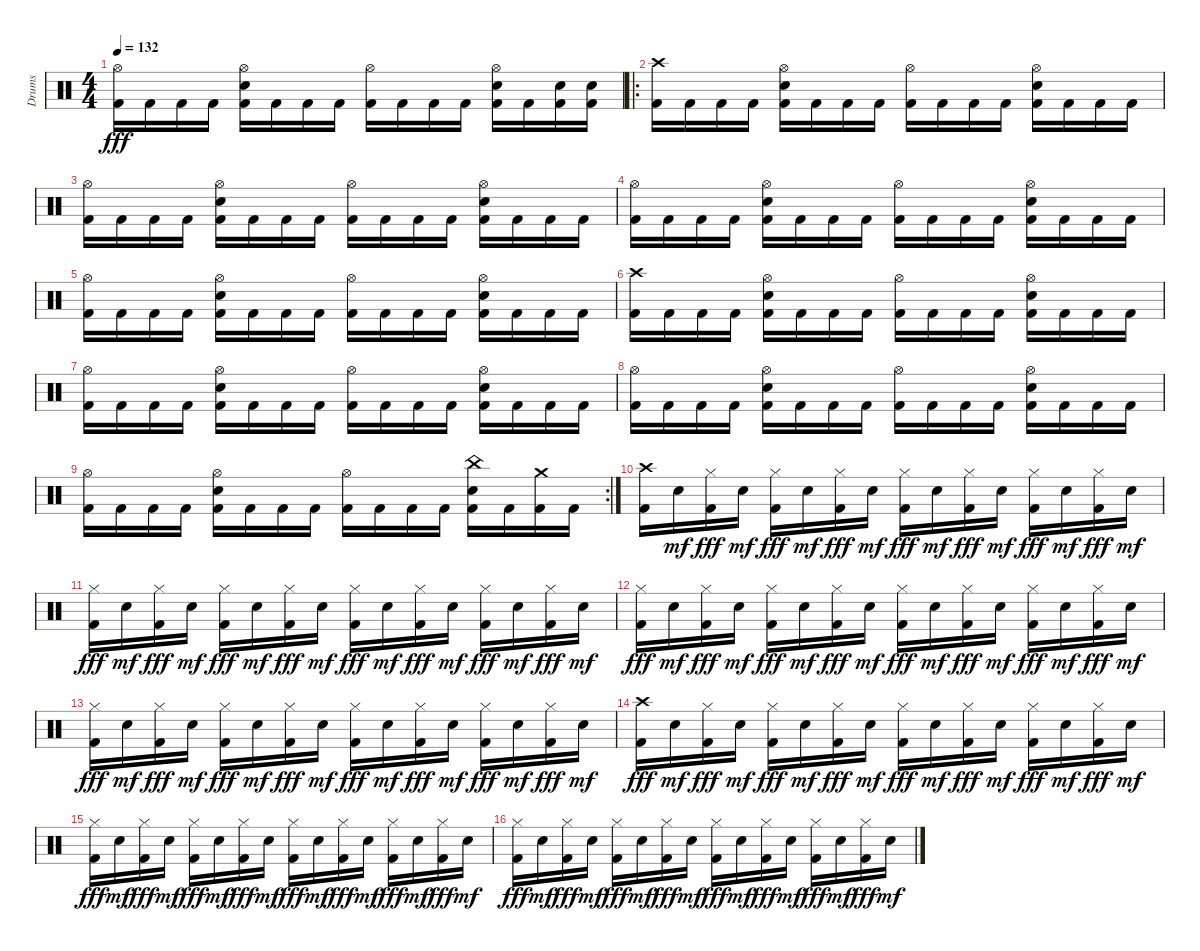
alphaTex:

\track ("Drums" "Drums") {instrument percussion}
\staff {score}
\articulation defaults
\ts (4 4)
\tempo 132
\clef neutral
\ks c
("Hi-Hat (open)" "Kick (hit) 2").16{dy fff} "Kick (hit) 2".16 "Kick (hit) 2".16 "Kick (hit) 2".16 ("Hi-Hat (open)" "Snare (hit) 2" "Kick (hit) 2").16 "Kick (hit) 2".16 "Kick (hit) 2".16 "Kick (hit) 2".16 ("Hi-Hat (open)" "Kick (hit) 2").16 "Kick (hit) 2".16 "Kick (hit) 2".16 "Kick (hit) 2".16 ("Hi-Hat (open)" "Snare (hit) 2" "Kick (hit) 2").16 "Kick (hit) 2".16 ("Snare (hit) 2" "Kick (hit) 2").16 ("Snare (hit) 2" "Kick (hit) 2").16 |
\ro
("Crash high (hit)" "Kick (hit) 2").16 "Kick (hit) 2".16 "Kick (hit) 2".16 "Kick (hit) 2".16 ("Hi-Hat (open)" "Snare (hit) 2" "Kick (hit) 2").16 "Kick (hit) 2".16 "Kick (hit) 2".16 "Kick (hit) 2".16 ("Hi-Hat (open)" "Kick (hit) 2").16 "Kick (hit) 2".16 "Kick (hit) 2".16 "Kick (hit) 2".16 ("Hi-Hat (open)" "Snare (hit) 2" "Kick (hit) 2").16 "Kick (hit) 2".16 "Kick (hit) 2".16 "Kick (hit) 2".16 |
("Hi-Hat (open)" "Kick (hit) 2").16 "Kick (hit) 2".16 "Kick (hit) 2".16 "Kick (hit) 2".16 ("Hi-Hat (open)" "Snare (hit) 2" "Kick (hit) 2").16 "Kick (hit) 2".16 "Kick (hit) 2".16 "Kick (hit) 2".16 ("Hi-Hat (open)" "Kick (hit) 2").16 "Kick (hit) 2".16 "Kick (hit) 2".16 "Kick (hit) 2".16 ("Hi-Hat (open)" "Snare (hit) 2" "Kick (hit) 2").16 "Kick (hit) 2".16 "Kick (hit) 2".16 "Kick (hit) 2".16 |
("Hi-Hat (open)" "Kick (hit) 2").16 "Kick (hit) 2".16 "Kick (hit) 2".16 "Kick (hit) 2".16 ("Hi-Hat (open)" "Snare (hit) 2" "Kick (hit) 2").16 "Kick (hit) 2".16 "Kick (hit) 2".16 "Kick (hit) 2".16 ("Hi-Hat (open)" "Kick (hit) 2").16 "Kick (hit) 2".16 "Kick (hit) 2".16 "Kick (hit) 2".16 ("Hi-Hat (open)" "Snare (hit) 2" "Kick (hit) 2").16 "Kick (hit) 2".16 "Kick (hit) 2".16 "Kick (hit) 2".16 |
("Hi-Hat (open)" "Kick (hit) 2").16 "Kick (hit) 2".16 "Kick (hit) 2".16 "Kick (hit) 2".16 ("Hi-Hat (open)" "Snare (hit) 2" "Kick (hit) 2").16 "Kick (hit) 2".16 "Kick (hit) 2".16 "Kick (hit) 2".16 ("Hi-Hat (open)" "Kick (hit) 2").16 "Kick (hit) 2".16 "Kick (hit) 2".16 "Kick (hit) 2".16 ("Hi-Hat (open)" "Snare (hit) 2" "Kick (hit) 2").16 "Kick (hit) 2".16 "Kick (hit) 2".16 "Kick (hit) 2".16 |
("Crash high (hit)" "Kick (hit) 2").16 "Kick (hit) 2".16 "Kick (hit) 2".16 "Kick (hit) 2".16 ("Hi-Hat (open)" "Snare (hit) 2" "Kick (hit) 2").16 "Kick (hit) 2".16 "Kick (hit) 2".16 "Kick (hit) 2".16 ("Hi-Hat (open)" "Kick (hit) 2").16 "Kick (hit) 2".16 "Kick (hit) 2".16 "Kick (hit) 2".16 ("Hi-Hat (open)" "Snare (hit) 2" "Kick (hit) 2").16 "Kick (hit) 2".16 "Kick (hit) 2".16 "Kick (hit) 2".16 |
("Hi-Hat (open)" "Kick (hit) 2").16 "Kick (hit) 2".16 "Kick (hit) 2".16 "Kick (hit) 2".16 ("Hi-Hat (open)" "Snare (hit) 2" "Kick (hit) 2").16 "Kick (hit) 2".16 "Kick (hit) 2".16 "Kick (hit) 2".16 ("Hi-Hat (open)" "Kick (hit) 2").16 "Kick (hit) 2".16 "Kick (hit) 2".16 "Kick (hit) 2".16 ("Hi-Hat (open)" "Snare (hit) 2" "Kick (hit) 2").16 "Kick (hit) 2".16 "Kick (hit) 2".16 "Kick (hit) 2".16 |
("Hi-Hat (open)" "Kick (hit) 2").16 "Kick (hit) 2".16 "Kick (hit) 2".16 "Kick (hit) 2".16 ("Hi-Hat (open)" "Snare (hit) 2" "Kick (hit) 2").16 "Kick (hit) 2".16 "Kick (hit) 2".16 "Kick (hit) 2".16 ("Hi-Hat (open)" "Kick (hit) 2").16 "Kick (hit) 2".16 "Kick (hit) 2".16 "Kick (hit) 2".16 ("Hi-Hat (open)" "Snare (hit) 2" "Kick (hit) 2").16 "Kick (hit) 2".16 "Kick (hit) 2".16 "Kick (hit) 2".16 |
\rc 2
("Hi-Hat (open)" "Kick (hit) 2").16 "Kick (hit) 2".16 "Kick (hit) 2".16 "Kick (hit) 2".16 ("Hi-Hat (open)" "Snare (hit) 2" "Kick (hit) 2").16 "Kick (hit) 2".16 "Kick (hit) 2".16 "Kick (hit) 2".16 ("Hi-Hat (open)" "Kick (hit) 2").16 "Kick (hit) 2".16 "Kick (hit) 2".16 "Kick (hit) 2".16 ("China (hit)" "Snare (hit) 2" "Kick (hit) 2").16 "Kick (hit) 2".16 ("Crash medium (hit)" "Kick (hit) 2").16 "Kick (hit) 2".16 |
("Crash high (hit)" "Kick (hit) 2").16 "Snare (hit) 2".16{dy mf} ("Hi-Hat (closed)" "Kick (hit) 2").16{dy fff} "Snare (hit) 2".16{dy mf} ("Hi-Hat (closed)" "Kick (hit) 2").16{dy fff} "Snare (hit) 2".16{dy mf} ("Hi-Hat (closed)" "Kick (hit) 2").16{dy fff} "Snare (hit) 2".16{dy mf} ("Hi-Hat (closed)" "Kick (hit) 2").16{dy fff} "Snare (hit) 2".16{dy mf} ("Hi-Hat (closed)" "Kick (hit) 2").16{dy fff} "Snare (hit) 2".16{dy mf} ("Hi-Hat (closed)" "Kick (hit) 2").16{dy fff} "Snare (hit) 2".16{dy mf} ("Hi-Hat (closed)" "Kick (hit) 2").16{dy fff} "Snare (hit) 2".16{dy mf} |
("Hi-Hat (closed)" "Kick (hit) 2").16{dy fff} "Snare (hit) 2".16{dy mf} ("Hi-Hat (closed)" "Kick (hit) 2").16{dy fff} "Snare (hit) 2".16{dy mf} ("Hi-Hat (closed)" "Kick (hit) 2").16{dy fff} "Snare (hit) 2".16{dy mf} ("Hi-Hat (closed)" "Kick (hit) 2").16{dy fff} "Snare (hit) 2".16{dy mf} ("Hi-Hat (closed)" "Kick (hit) 2").16{dy fff} "Snare (hit) 2".16{dy mf} ("Hi-Hat (closed)" "Kick (hit) 2").16{dy fff} "Snare (hit) 2".16{dy mf} ("Hi-Hat (closed)" "Kick (hit) 2").16{dy fff} "Snare (hit) 2".16{dy mf} ("Hi-Hat (closed)" "Kick (hit) 2").16{dy fff} "Snare (hit) 2".16{dy mf} |
("Hi-Hat (closed)" "Kick (hit) 2").16{dy fff} "Snare (hit) 2".16{dy mf} ("Hi-Hat (closed)" "Kick (hit) 2").16{dy fff} "Snare (hit) 2".16{dy mf} ("Hi-Hat (closed)" "Kick (hit) 2").16{dy fff} "Snare (hit) 2".16{dy mf} ("Hi-Hat (closed)" "Kick (hit) 2").16{dy fff} "Snare (hit) 2".16{dy mf} ("Hi-Hat (closed)" "Kick (hit) 2").16{dy fff} "Snare (hit) 2".16{dy mf} ("Hi-Hat (closed)" "Kick (hit) 2").16{dy fff} "Snare (hit) 2".16{dy mf} ("Hi-Hat (closed)" "Kick (hit) 2").16{dy fff} "Snare (hit) 2".16{dy mf} ("Hi-Hat (closed)" "Kick (hit) 2").16{dy fff} "Snare (hit) 2".16{dy mf} |
("Hi-Hat (closed)" "Kick (hit) 2").16{dy fff} "Snare (hit) 2".16{dy mf} ("Hi-Hat (closed)" "Kick (hit) 2").16{dy fff} "Snare (hit) 2".16{dy mf} ("Hi-Hat (closed)" "Kick (hit) 2").16{dy fff} "Snare (hit) 2".16{dy mf} ("Hi-Hat (closed)" "Kick (hit) 2").16{dy fff} "Snare (hit) 2".16{dy mf} ("Hi-Hat (closed)" "Kick (hit) 2").16{dy fff} "Snare (hit) 2".16{dy mf} ("Hi-Hat (closed)" "Kick (hit) 2").16{dy fff} "Snare (hit) 2".16{dy mf} ("Hi-Hat (closed)" "Kick (hit) 2").16{dy fff} "Snare (hit) 2".16{dy mf} ("Hi-Hat (closed)" "Kick (hit) 2").16{dy fff} "Snare (hit) 2".16{dy mf} |
("Crash high (hit)" "Kick (hit) 2").16{dy fff} "Snare (hit) 2".16{dy mf} ("Hi-Hat (closed)" "Kick (hit) 2").16{dy fff} "Snare (hit) 2".16{dy mf} ("Hi-Hat (closed)" "Kick (hit) 2").16{dy fff} "Snare (hit) 2".16{dy mf} ("Hi-Hat (closed)" "Kick (hit) 2").16{dy fff} "Snare (hit) 2".16{dy mf} ("Hi-Hat (closed)" "Kick (hit) 2").16{dy fff} "Snare (hit) 2".16{dy mf} ("Hi-Hat (closed)" "Kick (hit) 2").16{dy fff} "Snare (hit) 2".16{dy mf} ("Hi-Hat (closed)" "Kick (hit) 2").16{dy fff} "Snare (hit) 2".16{dy mf} ("Hi-Hat (closed)" "Kick (hit) 2").16{dy fff} "Snare (hit) 2".16{dy mf} |
("Hi-Hat (closed)" "Kick (hit) 2").16{dy fff} "Snare (hit) 2".16{dy mf} ("Hi-Hat (closed)" "Kick (hit) 2").16{dy fff} "Snare (hit) 2".16{dy mf} ("Hi-Hat (closed)" "Kick (hit) 2").16{dy fff} "Snare (hit) 2".16{dy mf} ("Hi-Hat (closed)" "Kick (hit) 2").16{dy fff} "Snare (hit) 2".16{dy mf} ("Hi-Hat (closed)" "Kick (hit) 2").16{dy fff} "Snare (hit) 2".16{dy mf} ("Hi-Hat (closed)" "Kick (hit) 2").16{dy fff} "Snare (hit) 2".16{dy mf} ("Hi-Hat (closed)" "Kick (hit) 2").16{dy fff} "Snare (hit) 2".16{dy mf} ("Hi-Hat (closed)" "Kick (hit) 2").16{dy fff} "Snare (hit) 2".16{dy mf} |
("Hi-Hat (closed)" "Kick (hit) 2").16{dy fff} "Snare (hit) 2".16{dy mf} ("Hi-Hat (closed)" "Kick (hit) 2").16{dy fff} "Snare (hit) 2".16{dy mf} ("Hi-Hat (closed)" "Kick (hit) 2").16{dy fff} "Snare (hit) 2".16{dy mf} ("Hi-Hat (closed)" "Kick (hit) 2").16{dy fff} "Snare (hit) 2".16{dy mf} ("Hi-Hat (closed)" "Kick (hit) 2").16{dy fff} "Snare (hit) 2".16{dy mf} ("Hi-Hat (closed)" "Kick (hit) 2").16{dy fff} "Snare (hit) 2".16{dy mf} ("Hi-Hat (closed)" "Kick (hit) 2").16{dy fff} "Snare (hit) 2".16{dy mf} ("Hi-Hat (closed)" "Kick (hit) 2").16{dy fff} "Snare (hit) 2".16{dy mf}
